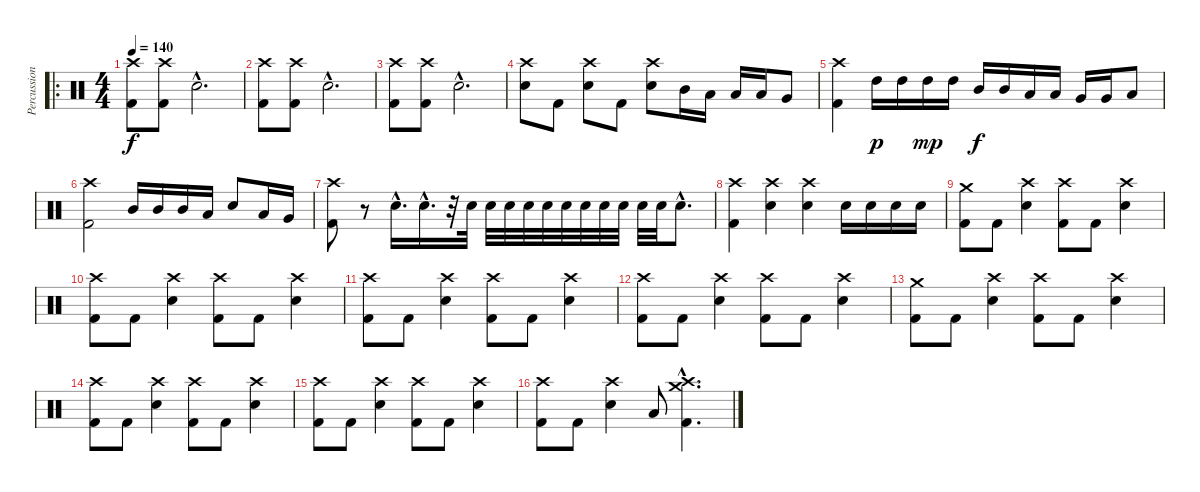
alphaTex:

\track ("Percussion" "Percussion") {instrument percussion}
\staff {score}
\articulation defaults
\ro
\ts (4 4)
\tempo 140
\clef neutral
\ks c
("Crash high (hit)" "Kick (hit) 2").8{dy f} ("Crash high (hit)" "Kick (hit) 2").8 "Snare (hit)"{hac x}.2{d} |
("Crash high (hit)" "Kick (hit) 2").8 ("Crash high (hit)" "Kick (hit) 2").8 "Snare (hit)"{hac x}.2{d} |
("Crash high (hit)" "Kick (hit) 2").8 ("Crash high (hit)" "Kick (hit) 2").8 "Snare (hit)"{hac x}.2{d} |
("Crash high (hit)" "Electric Snare (hit)").8 "Kick (hit) 2".8 ("Crash high (hit)" "Electric Snare (hit)").8 "Kick (hit) 2".8 ("Crash high (hit)" "Electric Snare (hit)").8 "Mid Tom (hit)".16 "Low Tom (hit)".16 "Low Tom (hit)".16 "Low Tom (hit)".16 "Very Low Tom (hit)".8 |
("Crash high (hit)" "Kick (hit) 2").4 "High Tom (hit)".16{dy p} "High Tom (hit)".16 "High Tom (hit)".16{dy mp} "High Tom (hit)".16 "Mid Tom (hit)".16{dy f} "Mid Tom (hit)".16 "Low Tom (hit)".16 "Low Tom (hit)".16 "Very Low Tom (hit)".16 "Very Low Tom (hit)".16 "Low Floor Tom (hit)".8 |
("Crash high (hit)" "Kick (hit) 2").2 "Mid Tom (hit)".16 "Mid Tom (hit)".16 "Mid Tom (hit)".16 "Low Tom (hit)".16 "Electric Snare (hit)".8 "Low Tom (hit)".16 "Very Low Tom (hit)".16 |
("Crash high (hit)" "Kick (hit) 2").8 r.8 "Electric Snare (hit)"{hac}.16{d} "Electric Snare (hit)"{hac}.16{d} r.32 "Electric Snare (hit)".32 "Electric Snare (hit)".32 "Electric Snare (hit)".32 "Electric Snare (hit)".32 "Electric Snare (hit)".32 "Electric Snare (hit)".32 "Electric Snare (hit)".32 "Electric Snare (hit)".32 "Electric Snare (hit)".32 "Electric Snare (hit)".32 "Electric Snare (hit)".32 "Electric Snare (hit)"{hac}.8{d} |
("Crash high (hit)" "Kick (hit) 2").4 ("Crash high (hit)" "Electric Snare (hit)").4 ("Crash high (hit)" "Electric Snare (hit)").4 "Electric Snare (hit)".16 "Electric Snare (hit)".16 "Electric Snare (hit)".16 "Electric Snare (hit)".16 |
("Crash medium (hit)" "Kick (hit) 2").8 "Kick (hit) 2".8 ("Crash high (hit)" "Electric Snare (hit)").4 ("Crash high (hit)" "Kick (hit) 2").8 "Kick (hit) 2".8 ("Crash high (hit)" "Electric Snare (hit)").4 |
("Crash high (hit)" "Kick (hit) 2").8 "Kick (hit) 2".8 ("Crash high (hit)" "Electric Snare (hit)").4 ("Crash high (hit)" "Kick (hit) 2").8 "Kick (hit) 2".8 ("Crash high (hit)" "Electric Snare (hit)").4 |
("Crash high (hit)" "Kick (hit) 2").8 "Kick (hit) 2".8 ("Crash high (hit)" "Electric Snare (hit)").4 ("Crash high (hit)" "Kick (hit) 2").8 "Kick (hit) 2".8 ("Crash high (hit)" "Electric Snare (hit)").4 |
("Crash high (hit)" "Kick (hit) 2").8 "Kick (hit) 2".8 ("Crash high (hit)" "Electric Snare (hit)").4 ("Crash high (hit)" "Kick (hit) 2").8 "Kick (hit) 2".8 ("Crash high (hit)" "Electric Snare (hit)").4 |
("Crash medium (hit)" "Kick (hit) 2").8 "Kick (hit) 2".8 ("Crash high (hit)" "Electric Snare (hit)").4 ("Crash high (hit)" "Kick (hit) 2").8 "Kick (hit) 2".8 ("Crash high (hit)" "Electric Snare (hit)").4 |
("Crash high (hit)" "Kick (hit) 2").8 "Kick (hit) 2".8 ("Crash high (hit)" "Electric Snare (hit)").4 ("Crash high (hit)" "Kick (hit) 2").8 "Kick (hit) 2".8 ("Crash high (hit)" "Electric Snare (hit)").4 |
("Crash high (hit)" "Kick (hit) 2").8 "Kick (hit) 2".8 ("Crash high (hit)" "Electric Snare (hit)").4 ("Crash high (hit)" "Kick (hit) 2").8 "Kick (hit) 2".8 ("Crash high (hit)" "Electric Snare (hit)").4 |
("Crash high (hit)" "Kick (hit) 2").8 "Kick (hit) 2".8 ("Crash high (hit)" "Electric Snare (hit)").4 "Low Tom (hit)".8 ("Crash high (hit)"{hac} "Crash medium (hit)"{hac} "Kick (hit) 2"{hac}).4{d}
